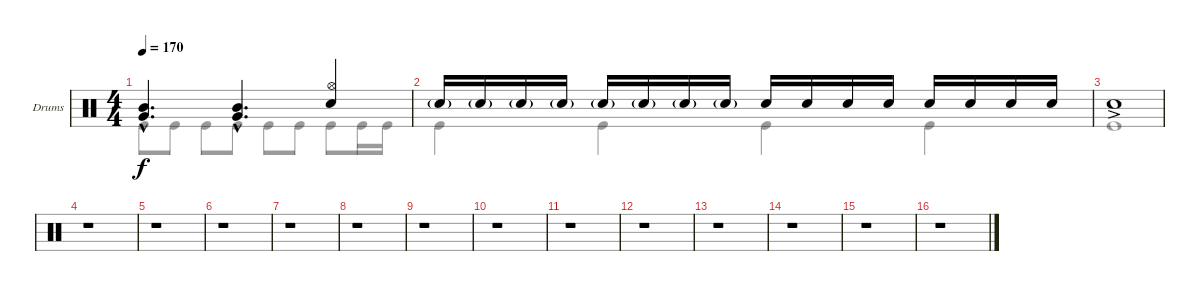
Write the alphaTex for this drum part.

\defaultSystemsLayout 4
\bracketExtendMode groupsimilarinstruments
\firstSystemTrackNameOrientation horizontal
\otherSystemsTrackNameOrientation horizontal
\track ("Drumkit" "Drums") {instrument percussion}
\staff {score}
\articulation defaults
\voice
\ts (4 4)
\tempo 170
\clef neutral
\ks c
("Mid Tom (hit)"{hac} "Very Low Tom (hit)"{hac}).4{d dy f} ("Very Low Tom (hit)"{hac} "Mid Tom (hit)"{hac}).4{d} ("Snare (hit) 2" "Hi-Hat (open)").4 |
"Snare (hit) 2"{g}.16 "Snare (hit) 2"{g}.16 "Snare (hit) 2"{g}.16 "Snare (hit) 2"{g}.16 "Snare (hit) 2"{g}.16 "Snare (hit) 2"{g}.16 "Snare (hit) 2"{g}.16 "Snare (hit) 2"{g}.16 "Snare (hit) 2".16 "Snare (hit) 2".16 "Snare (hit) 2".16 "Snare (hit) 2".16 "Snare (hit) 2".16 "Snare (hit) 2".16 "Snare (hit) 2".16 "Snare (hit) 2".16 |
"Snare (hit) 2"{ac}.1 |
r.1 |
r.1 |
r.1 |
r.1 |
r.1 |
r.1 |
r.1 |
r.1 |
r.1 |
r.1 |
r.1 |
r.1 |
r.1
\voice
\clef neutral
\ottava regular
\simile none
\ks c "Kick (hit)".8{dy f} "Kick (hit)".8 "Kick (hit)".8 "Kick (hit)".8 "Kick (hit)".8 "Kick (hit)".8 "Kick (hit)".8 "Kick (hit)".16 "Kick (hit)".16
|
"Kick (hit)".4 "Kick (hit)".4 "Kick (hit)".4 "Kick (hit)".4 |
"Kick (hit)".1 |
|
|
|
|
|
|
|
|
|
|
|
|
